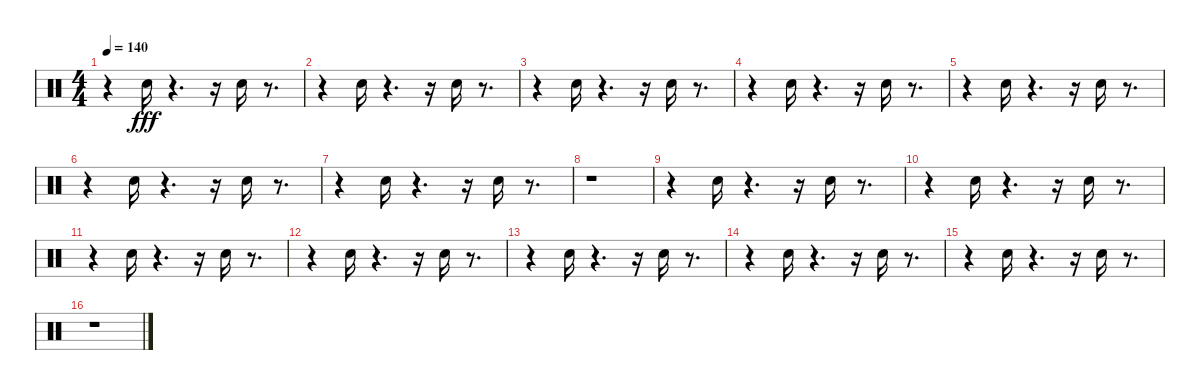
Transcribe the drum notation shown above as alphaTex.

\track "" {instrument percussion}
\staff {score}
\articulation defaults
\ts (4 4)
\tempo 140
\clef neutral
\ks c
r.4{dy fff} "Snare (hit) 2".16 r.4{d} r.16 "Snare (hit) 2".16 r.8{d} |
r.4 "Snare (hit) 2".16 r.4{d} r.16 "Snare (hit) 2".16 r.8{d} |
r.4 "Snare (hit) 2".16 r.4{d} r.16 "Snare (hit) 2".16 r.8{d} |
r.4 "Snare (hit) 2".16 r.4{d} r.16 "Snare (hit) 2".16 r.8{d} |
r.4 "Snare (hit) 2".16 r.4{d} r.16 "Snare (hit) 2".16 r.8{d} |
r.4 "Snare (hit) 2".16 r.4{d} r.16 "Snare (hit) 2".16 r.8{d} |
r.4 "Snare (hit) 2".16 r.4{d} r.16 "Snare (hit) 2".16 r.8{d} |
r.1 |
r.4 "Snare (hit) 2".16 r.4{d} r.16 "Snare (hit) 2".16 r.8{d} |
r.4 "Snare (hit) 2".16 r.4{d} r.16 "Snare (hit) 2".16 r.8{d} |
r.4 "Snare (hit) 2".16 r.4{d} r.16 "Snare (hit) 2".16 r.8{d} |
r.4 "Snare (hit) 2".16 r.4{d} r.16 "Snare (hit) 2".16 r.8{d} |
r.4 "Snare (hit) 2".16 r.4{d} r.16 "Snare (hit) 2".16 r.8{d} |
r.4 "Snare (hit) 2".16 r.4{d} r.16 "Snare (hit) 2".16 r.8{d} |
r.4 "Snare (hit) 2".16 r.4{d} r.16 "Snare (hit) 2".16 r.8{d} |
r.1
